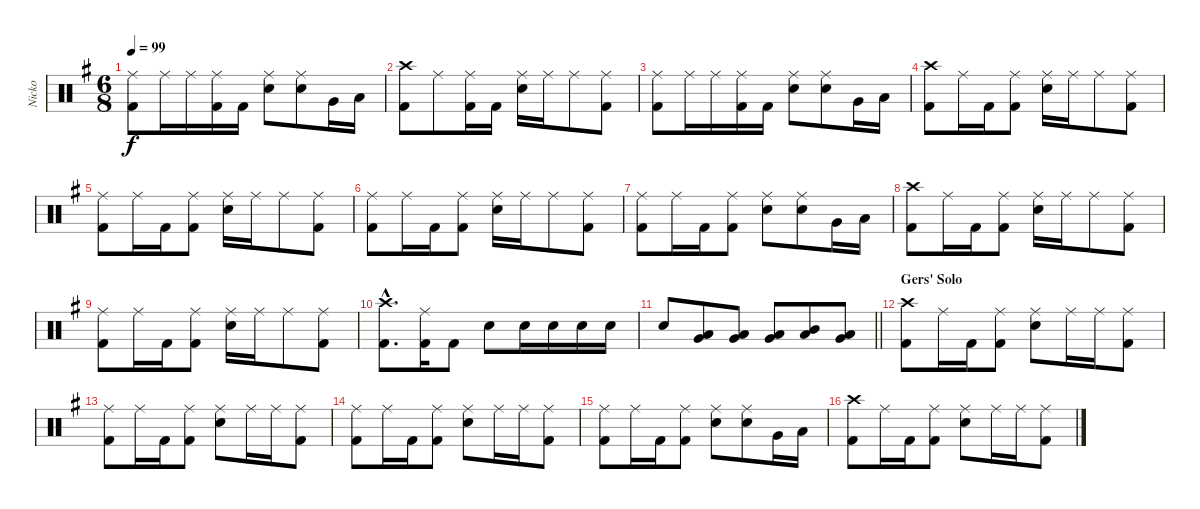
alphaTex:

\track ("Nicko" "Nicko") {instrument percussion}
\staff {score}
\articulation defaults
\ts (6 8)
\tempo 99
\clef neutral
\ks eminor
("Ride (middle)" "Kick (hit) 2").8{dy f} "Ride (middle)".16 "Ride (middle)".16 ("Ride (middle)" "Kick (hit) 2").16 "Kick (hit) 2".16 ("Ride (middle)" "Snare (hit) 2").8 ("Ride (middle)" "Snare (hit) 2").8 "Very Low Tom (hit)".16 "Low Floor Tom (hit)".16 |
("Crash high (hit)" "Kick (hit) 2").8 "Ride (middle)".8 ("Ride (middle)" "Kick (hit) 2").16 "Kick (hit) 2".16 ("Ride (middle)" "Snare (hit) 2").16 "Ride (middle)".16 "Ride (middle)".8 ("Ride (middle)" "Kick (hit) 2").8 |
("Ride (middle)" "Kick (hit) 2").8 "Ride (middle)".16 "Ride (middle)".16 ("Ride (middle)" "Kick (hit) 2").16 "Kick (hit) 2".16 ("Ride (middle)" "Snare (hit) 2").8 ("Ride (middle)" "Snare (hit) 2").8 "Very Low Tom (hit)".16 "Low Floor Tom (hit)".16 |
("Crash high (hit)" "Kick (hit) 2").8 "Ride (middle)".16 "Kick (hit) 2".16 ("Ride (middle)" "Kick (hit) 2").8 ("Ride (middle)" "Snare (hit) 2").16 "Ride (middle)".16 "Ride (middle)".8 ("Ride (middle)" "Kick (hit) 2").8 |
("Ride (middle)" "Kick (hit) 2").8 "Ride (middle)".16 "Kick (hit) 2".16 ("Ride (middle)" "Kick (hit) 2").8 ("Ride (middle)" "Snare (hit) 2").16 "Ride (middle)".16 "Ride (middle)".8 ("Ride (middle)" "Kick (hit) 2").8 |
("Ride (middle)" "Kick (hit) 2").8 "Ride (middle)".16 "Kick (hit) 2".16 ("Ride (middle)" "Kick (hit) 2").8 ("Ride (middle)" "Snare (hit) 2").16 "Ride (middle)".16 "Ride (middle)".8 ("Ride (middle)" "Kick (hit) 2").8 |
("Ride (middle)" "Kick (hit) 2").8 "Ride (middle)".16 "Kick (hit) 2".16 ("Ride (middle)" "Kick (hit) 2").8 ("Ride (middle)" "Snare (hit) 2").8 ("Ride (middle)" "Snare (hit) 2").8 "Very Low Tom (hit)".16 "Low Floor Tom (hit)".16 |
("Crash high (hit)" "Kick (hit) 2").8 "Ride (middle)".16 "Kick (hit) 2".16 ("Ride (middle)" "Kick (hit) 2").8 ("Ride (middle)" "Snare (hit) 2").16 "Ride (middle)".16 "Ride (middle)".8 ("Ride (middle)" "Kick (hit) 2").8 |
("Ride (middle)" "Kick (hit) 2").8 "Ride (middle)".16 "Kick (hit) 2".16 ("Ride (middle)" "Kick (hit) 2").8 ("Ride (middle)" "Snare (hit) 2").16 "Ride (middle)".16 "Ride (middle)".8 ("Ride (middle)" "Kick (hit) 2").8 |
("Crash high (hit)"{hac} "Kick (hit) 2"{hac}).8{d} ("Ride (middle)" "Kick (hit) 2").16 "Kick (hit) 2".8 "Snare (hit) 2".8 "Snare (hit) 2".16 "Snare (hit) 2".16 "Snare (hit) 2".16 "Snare (hit) 2".16 |
\barLineRight lightlight "Snare (hit) 2".8
("Very Low Tom (hit)" "Low Floor Tom (hit)").8 ("Low Tom (hit)" "Very Low Tom (hit)").8 ("Very Low Tom (hit)" "Low Tom (hit)").8 ("Low Floor Tom (hit)" "Mid Tom (hit)").8 ("Very Low Tom (hit)" "Low Floor Tom (hit)").8 |
\section ("" "Gers' Solo")
("Crash high (hit)" "Kick (hit) 2").8 "Ride (middle)".16 "Kick (hit) 2".16 ("Ride (middle)" "Kick (hit) 2").8 ("Ride (middle)" "Snare (hit) 2").8 "Ride (middle)".16 "Ride (middle)".16 ("Ride (middle)" "Kick (hit) 2").8 |
("Ride (middle)" "Kick (hit) 2").8 "Ride (middle)".16 "Kick (hit) 2".16 ("Ride (middle)" "Kick (hit) 2").8 ("Ride (middle)" "Snare (hit) 2").8 "Ride (middle)".16 "Ride (middle)".16 ("Ride (middle)" "Kick (hit) 2").8 |
("Ride (middle)" "Kick (hit) 2").8 "Ride (middle)".16 "Kick (hit) 2".16 ("Ride (middle)" "Kick (hit) 2").8 ("Ride (middle)" "Snare (hit) 2").8 "Ride (middle)".16 "Ride (middle)".16 ("Ride (middle)" "Kick (hit) 2").8 |
("Ride (middle)" "Kick (hit) 2").8 "Ride (middle)".16 "Kick (hit) 2".16 ("Ride (middle)" "Kick (hit) 2").8 ("Ride (middle)" "Snare (hit) 2").8 ("Ride (middle)" "Snare (hit) 2").8 "Very Low Tom (hit)".16 "Low Floor Tom (hit)".16 |
("Crash high (hit)" "Kick (hit) 2").8 "Ride (middle)".16 "Kick (hit) 2".16 ("Ride (middle)" "Kick (hit) 2").8 ("Ride (middle)" "Snare (hit) 2").8 "Ride (middle)".16 "Ride (middle)".16 ("Ride (middle)" "Kick (hit) 2").8
